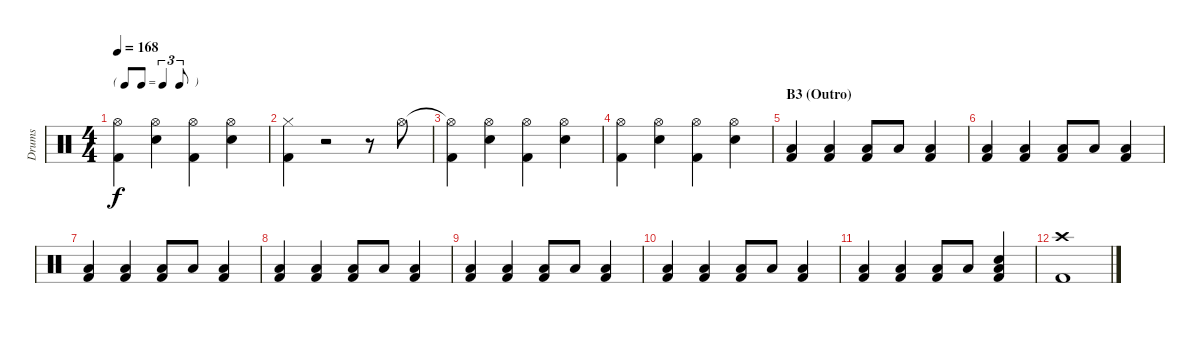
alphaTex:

\track ("Drums" "Drums") {instrument percussion}
\staff {score}
\articulation defaults
\ts (4 4)
\tf triplet8th
\tempo 168
\clef neutral
\ks c
("Hi-Hat (open)" "Kick (hit) 2").4{dy f} ("Hi-Hat (open)" "Snare (hit) 2").4 ("Hi-Hat (open)" "Kick (hit) 2").4 ("Hi-Hat (open)" "Snare (hit) 2").4 |
("Hi-Hat (closed)" "Kick (hit) 2").4 r.2 r.8 "Hi-Hat (open)".8 |
("Hi-Hat (open)"{t} "Kick (hit) 2").4 ("Hi-Hat (open)" "Snare (hit) 2").4 ("Hi-Hat (open)" "Kick (hit) 2").4 ("Hi-Hat (open)" "Snare (hit) 2").4 |
\section ("" "")
("Hi-Hat (open)" "Kick (hit) 2").4 ("Hi-Hat (open)" "Snare (hit) 2").4 ("Hi-Hat (open)" "Kick (hit) 2").4 ("Hi-Hat (open)" "Snare (hit) 2").4 |
\section ("" "B3 (Outro)")
("Low Tom (hit)" "Kick (hit) 2").4 ("Low Tom (hit)" "Kick (hit) 2").4 ("Low Tom (hit)" "Kick (hit) 2").8 "Low Tom (hit)".8 ("Low Tom (hit)" "Kick (hit) 2").4 |
("Low Tom (hit)" "Kick (hit) 2").4 ("Low Tom (hit)" "Kick (hit) 2").4 ("Low Tom (hit)" "Kick (hit) 2").8 "Low Tom (hit)".8 ("Low Tom (hit)" "Kick (hit) 2").4 |
("Low Tom (hit)" "Kick (hit) 2").4 ("Low Tom (hit)" "Kick (hit) 2").4 ("Low Tom (hit)" "Kick (hit) 2").8 "Low Tom (hit)".8 ("Low Tom (hit)" "Kick (hit) 2").4 |
("Low Tom (hit)" "Kick (hit) 2").4 ("Low Tom (hit)" "Kick (hit) 2").4 ("Low Tom (hit)" "Kick (hit) 2").8 "Low Tom (hit)".8 ("Low Tom (hit)" "Kick (hit) 2").4 |
("Low Tom (hit)" "Kick (hit) 2").4 ("Low Tom (hit)" "Kick (hit) 2").4 ("Low Tom (hit)" "Kick (hit) 2").8 "Low Tom (hit)".8 ("Low Tom (hit)" "Kick (hit) 2").4 |
("Low Tom (hit)" "Kick (hit) 2").4 ("Low Tom (hit)" "Kick (hit) 2").4 ("Low Tom (hit)" "Kick (hit) 2").8 "Low Tom (hit)".8 ("Low Tom (hit)" "Kick (hit) 2").4 |
("Low Tom (hit)" "Kick (hit) 2").4 ("Low Tom (hit)" "Kick (hit) 2").4 ("Low Tom (hit)" "Kick (hit) 2").8 "Low Tom (hit)".8 ("Snare (hit) 2" "Low Tom (hit)" "Kick (hit) 2").4 |
("Crash high (hit)" "Kick (hit) 2").1
